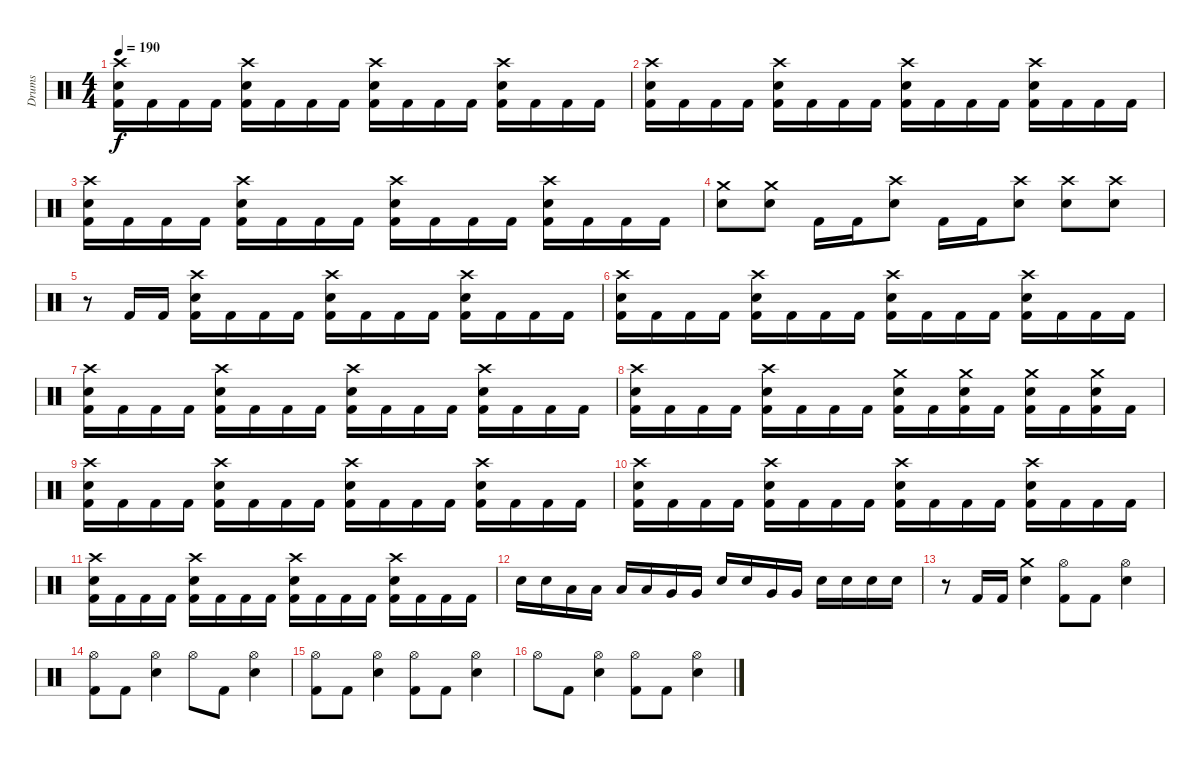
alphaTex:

\track ("Drums" "Drums") {instrument percussion}
\staff {score}
\articulation defaults
\ts (4 4)
\tempo 190
\clef neutral
\ks c
("Crash high (hit)" "Snare (hit) 2" "Kick (hit) 2").16{dy f} "Kick (hit) 2".16 "Kick (hit) 2".16 "Kick (hit) 2".16 ("Crash high (hit)" "Snare (hit) 2" "Kick (hit) 2").16 "Kick (hit) 2".16 "Kick (hit) 2".16 "Kick (hit) 2".16 ("Crash high (hit)" "Snare (hit) 2" "Kick (hit) 2").16 "Kick (hit) 2".16 "Kick (hit) 2".16 "Kick (hit) 2".16 ("Crash high (hit)" "Snare (hit) 2" "Kick (hit) 2").16 "Kick (hit) 2".16 "Kick (hit) 2".16 "Kick (hit) 2".16 |
("Crash high (hit)" "Snare (hit) 2" "Kick (hit) 2").16 "Kick (hit) 2".16 "Kick (hit) 2".16 "Kick (hit) 2".16 ("Crash high (hit)" "Snare (hit) 2" "Kick (hit) 2").16 "Kick (hit) 2".16 "Kick (hit) 2".16 "Kick (hit) 2".16 ("Crash high (hit)" "Snare (hit) 2" "Kick (hit) 2").16 "Kick (hit) 2".16 "Kick (hit) 2".16 "Kick (hit) 2".16 ("Crash high (hit)" "Snare (hit) 2" "Kick (hit) 2").16 "Kick (hit) 2".16 "Kick (hit) 2".16 "Kick (hit) 2".16 |
("Crash high (hit)" "Snare (hit) 2" "Kick (hit) 2").16 "Kick (hit) 2".16 "Kick (hit) 2".16 "Kick (hit) 2".16 ("Crash high (hit)" "Snare (hit) 2" "Kick (hit) 2").16 "Kick (hit) 2".16 "Kick (hit) 2".16 "Kick (hit) 2".16 ("Crash high (hit)" "Snare (hit) 2" "Kick (hit) 2").16 "Kick (hit) 2".16 "Kick (hit) 2".16 "Kick (hit) 2".16 ("Crash high (hit)" "Snare (hit) 2" "Kick (hit) 2").16 "Kick (hit) 2".16 "Kick (hit) 2".16 "Kick (hit) 2".16 |
("Crash medium (hit)" "Snare (hit) 2").8 ("Crash medium (hit)" "Snare (hit) 2").8 "Kick (hit) 2".16 "Kick (hit) 2".16 ("Crash high (hit)" "Snare (hit) 2").8 "Kick (hit) 2".16 "Kick (hit) 2".16 ("Crash high (hit)" "Snare (hit) 2").8 ("Crash high (hit)" "Snare (hit) 2").8 ("Crash high (hit)" "Snare (hit) 2").8 |
r.8 "Kick (hit) 2".16 "Kick (hit) 2".16 ("Crash high (hit)" "Snare (hit) 2" "Kick (hit) 2").16 "Kick (hit) 2".16 "Kick (hit) 2".16 "Kick (hit) 2".16 ("Crash high (hit)" "Snare (hit) 2" "Kick (hit) 2").16 "Kick (hit) 2".16 "Kick (hit) 2".16 "Kick (hit) 2".16 ("Crash high (hit)" "Snare (hit) 2" "Kick (hit) 2").16 "Kick (hit) 2".16 "Kick (hit) 2".16 "Kick (hit) 2".16 |
("Crash high (hit)" "Snare (hit) 2" "Kick (hit) 2").16 "Kick (hit) 2".16 "Kick (hit) 2".16 "Kick (hit) 2".16 ("Crash high (hit)" "Snare (hit) 2" "Kick (hit) 2").16 "Kick (hit) 2".16 "Kick (hit) 2".16 "Kick (hit) 2".16 ("Crash high (hit)" "Snare (hit) 2" "Kick (hit) 2").16 "Kick (hit) 2".16 "Kick (hit) 2".16 "Kick (hit) 2".16 ("Crash high (hit)" "Snare (hit) 2" "Kick (hit) 2").16 "Kick (hit) 2".16 "Kick (hit) 2".16 "Kick (hit) 2".16 |
("Crash high (hit)" "Snare (hit) 2" "Kick (hit) 2").16 "Kick (hit) 2".16 "Kick (hit) 2".16 "Kick (hit) 2".16 ("Crash high (hit)" "Snare (hit) 2" "Kick (hit) 2").16 "Kick (hit) 2".16 "Kick (hit) 2".16 "Kick (hit) 2".16 ("Crash high (hit)" "Snare (hit) 2" "Kick (hit) 2").16 "Kick (hit) 2".16 "Kick (hit) 2".16 "Kick (hit) 2".16 ("Crash high (hit)" "Snare (hit) 2" "Kick (hit) 2").16 "Kick (hit) 2".16 "Kick (hit) 2".16 "Kick (hit) 2".16 |
("Crash high (hit)" "Snare (hit) 2" "Kick (hit) 2").16 "Kick (hit) 2".16 "Kick (hit) 2".16 "Kick (hit) 2".16 ("Crash high (hit)" "Snare (hit) 2" "Kick (hit) 2").16 "Kick (hit) 2".16 "Kick (hit) 2".16 "Kick (hit) 2".16 ("Crash medium (hit)" "Snare (hit) 2" "Kick (hit) 2").16 "Kick (hit) 2".16 ("Crash medium (hit)" "Snare (hit) 2" "Kick (hit) 2").16 "Kick (hit) 2".16 ("Crash medium (hit)" "Snare (hit) 2" "Kick (hit) 2").16 "Kick (hit) 2".16 ("Crash medium (hit)" "Snare (hit) 2" "Kick (hit) 2").16 "Kick (hit) 2".16 |
("Crash high (hit)" "Snare (hit) 2" "Kick (hit) 2").16 "Kick (hit) 2".16 "Kick (hit) 2".16 "Kick (hit) 2".16 ("Crash high (hit)" "Snare (hit) 2" "Kick (hit) 2").16 "Kick (hit) 2".16 "Kick (hit) 2".16 "Kick (hit) 2".16 ("Crash high (hit)" "Snare (hit) 2" "Kick (hit) 2").16 "Kick (hit) 2".16 "Kick (hit) 2".16 "Kick (hit) 2".16 ("Crash high (hit)" "Snare (hit) 2" "Kick (hit) 2").16 "Kick (hit) 2".16 "Kick (hit) 2".16 "Kick (hit) 2".16 |
("Crash high (hit)" "Snare (hit) 2" "Kick (hit) 2").16 "Kick (hit) 2".16 "Kick (hit) 2".16 "Kick (hit) 2".16 ("Crash high (hit)" "Snare (hit) 2" "Kick (hit) 2").16 "Kick (hit) 2".16 "Kick (hit) 2".16 "Kick (hit) 2".16 ("Crash high (hit)" "Snare (hit) 2" "Kick (hit) 2").16 "Kick (hit) 2".16 "Kick (hit) 2".16 "Kick (hit) 2".16 ("Crash high (hit)" "Snare (hit) 2" "Kick (hit) 2").16 "Kick (hit) 2".16 "Kick (hit) 2".16 "Kick (hit) 2".16 |
("Crash high (hit)" "Snare (hit) 2" "Kick (hit) 2").16 "Kick (hit) 2".16 "Kick (hit) 2".16 "Kick (hit) 2".16 ("Crash high (hit)" "Snare (hit) 2" "Kick (hit) 2").16 "Kick (hit) 2".16 "Kick (hit) 2".16 "Kick (hit) 2".16 ("Crash high (hit)" "Snare (hit) 2" "Kick (hit) 2").16 "Kick (hit) 2".16 "Kick (hit) 2".16 "Kick (hit) 2".16 ("Crash high (hit)" "Snare (hit) 2" "Kick (hit) 2").16 "Kick (hit) 2".16 "Kick (hit) 2".16 "Kick (hit) 2".16 |
"Snare (hit) 2".16 "Snare (hit) 2".16 "Low Tom (hit)".16 "Low Tom (hit)".16 "Low Tom (hit)".16 "Low Tom (hit)".16 "Very Low Tom (hit)".16 "Very Low Tom (hit)".16 "Snare (hit) 2".16 "Snare (hit) 2".16 "Very Low Tom (hit)".16 "Very Low Tom (hit)".16 "Snare (hit) 2".16 "Snare (hit) 2".16 "Snare (hit) 2".16 "Snare (hit) 2".16 |
r.8 "Kick (hit) 2".16 "Kick (hit) 2".16 ("Crash medium (hit)" "Snare (hit) 2").4 ("Hi-Hat (open)" "Kick (hit) 2").8 "Kick (hit) 2".8 ("Hi-Hat (open)" "Snare (hit) 2").4 |
("Hi-Hat (open)" "Kick (hit) 2").8 "Kick (hit) 2".8 ("Hi-Hat (open)" "Snare (hit) 2").4 "Hi-Hat (open)".8 "Kick (hit) 2".8 ("Hi-Hat (open)" "Snare (hit) 2").4 |
("Hi-Hat (open)" "Kick (hit) 2").8 "Kick (hit) 2".8 ("Hi-Hat (open)" "Snare (hit) 2").4 ("Hi-Hat (open)" "Kick (hit) 2").8 "Kick (hit) 2".8 ("Hi-Hat (open)" "Snare (hit) 2").4 |
"Hi-Hat (open)".8 "Kick (hit) 2".8 ("Hi-Hat (open)" "Snare (hit) 2").4 ("Hi-Hat (open)" "Kick (hit) 2").8 "Kick (hit) 2".8 ("Hi-Hat (open)" "Snare (hit) 2").4
